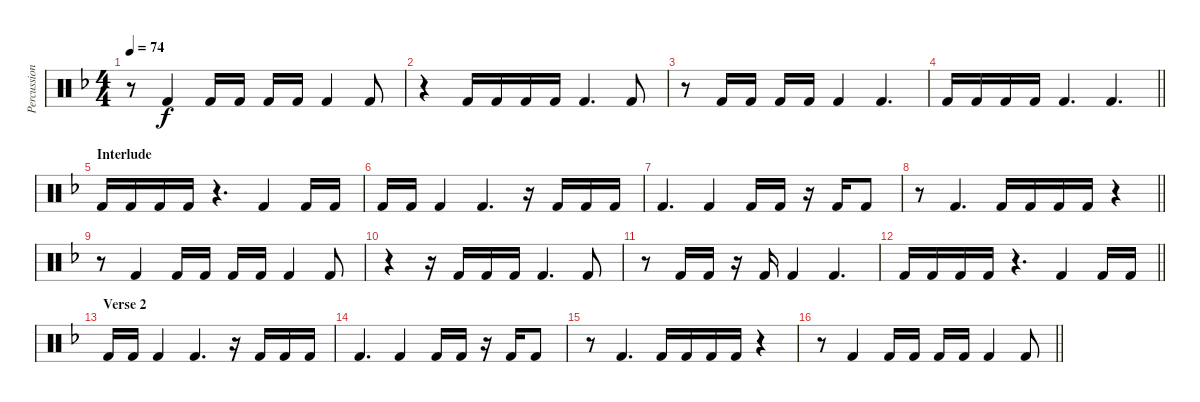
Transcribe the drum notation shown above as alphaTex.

\track ("Percussion" "Percussion") {instrument percussion}
\staff {score}
\articulation defaults
\ts (4 4)
\tempo 74
\clef neutral
\ks f
r.8{dy f} "Kick (hit) 2".4 "Kick (hit) 2".16 "Kick (hit) 2".16 "Kick (hit) 2".16 "Kick (hit) 2".16 "Kick (hit) 2".4 "Kick (hit) 2".8 |
r.4 "Kick (hit) 2".16 "Kick (hit) 2".16 "Kick (hit) 2".16 "Kick (hit) 2".16 "Kick (hit) 2".4{d} "Kick (hit) 2".8 |
r.8 "Kick (hit) 2".16 "Kick (hit) 2".16 "Kick (hit) 2".16 "Kick (hit) 2".16 "Kick (hit) 2".4 "Kick (hit) 2".4{d} |
\barLineRight lightlight "Kick (hit) 2".16 "Kick (hit) 2".16 "Kick (hit) 2".16 "Kick (hit) 2".16 "Kick (hit) 2".4{d} "Kick (hit) 2".4{d}
|
\section ("" "Interlude")
"Kick (hit) 2".16 "Kick (hit) 2".16 "Kick (hit) 2".16 "Kick (hit) 2".16 r.4{d} "Kick (hit) 2".4 "Kick (hit) 2".16 "Kick (hit) 2".16 |
"Kick (hit) 2".16 "Kick (hit) 2".16 "Kick (hit) 2".4 "Kick (hit) 2".4{d} r.16 "Kick (hit) 2".16 "Kick (hit) 2".16 "Kick (hit) 2".16 |
"Kick (hit) 2".4{d} "Kick (hit) 2".4 "Kick (hit) 2".16 "Kick (hit) 2".16 r.16 "Kick (hit) 2".16 "Kick (hit) 2".8 |
\barLineRight lightlight
r.8 "Kick (hit) 2".4{d} "Kick (hit) 2".16 "Kick (hit) 2".16 "Kick (hit) 2".16 "Kick (hit) 2".16 r.4 |
r.8 "Kick (hit) 2".4 "Kick (hit) 2".16 "Kick (hit) 2".16 "Kick (hit) 2".16 "Kick (hit) 2".16 "Kick (hit) 2".4 "Kick (hit) 2".8 |
r.4 r.16 "Kick (hit) 2".16 "Kick (hit) 2".16 "Kick (hit) 2".16 "Kick (hit) 2".4{d} "Kick (hit) 2".8 |
r.8 "Kick (hit) 2".16 "Kick (hit) 2".16 r.16 "Kick (hit) 2".16 "Kick (hit) 2".4 "Kick (hit) 2".4{d} |
\barLineRight lightlight "Kick (hit) 2".16 "Kick (hit) 2".16 "Kick (hit) 2".16 "Kick (hit) 2".16
r.4{d} "Kick (hit) 2".4 "Kick (hit) 2".16 "Kick (hit) 2".16 |
\section ("" "Verse 2")
"Kick (hit) 2".16 "Kick (hit) 2".16 "Kick (hit) 2".4 "Kick (hit) 2".4{d} r.16 "Kick (hit) 2".16 "Kick (hit) 2".16 "Kick (hit) 2".16 |
"Kick (hit) 2".4{d} "Kick (hit) 2".4 "Kick (hit) 2".16 "Kick (hit) 2".16 r.16 "Kick (hit) 2".16 "Kick (hit) 2".8 |
r.8 "Kick (hit) 2".4{d} "Kick (hit) 2".16 "Kick (hit) 2".16 "Kick (hit) 2".16 "Kick (hit) 2".16 r.4 |
\barLineRight lightlight
r.8 "Kick (hit) 2".4 "Kick (hit) 2".16 "Kick (hit) 2".16 "Kick (hit) 2".16 "Kick (hit) 2".16 "Kick (hit) 2".4 "Kick (hit) 2".8
